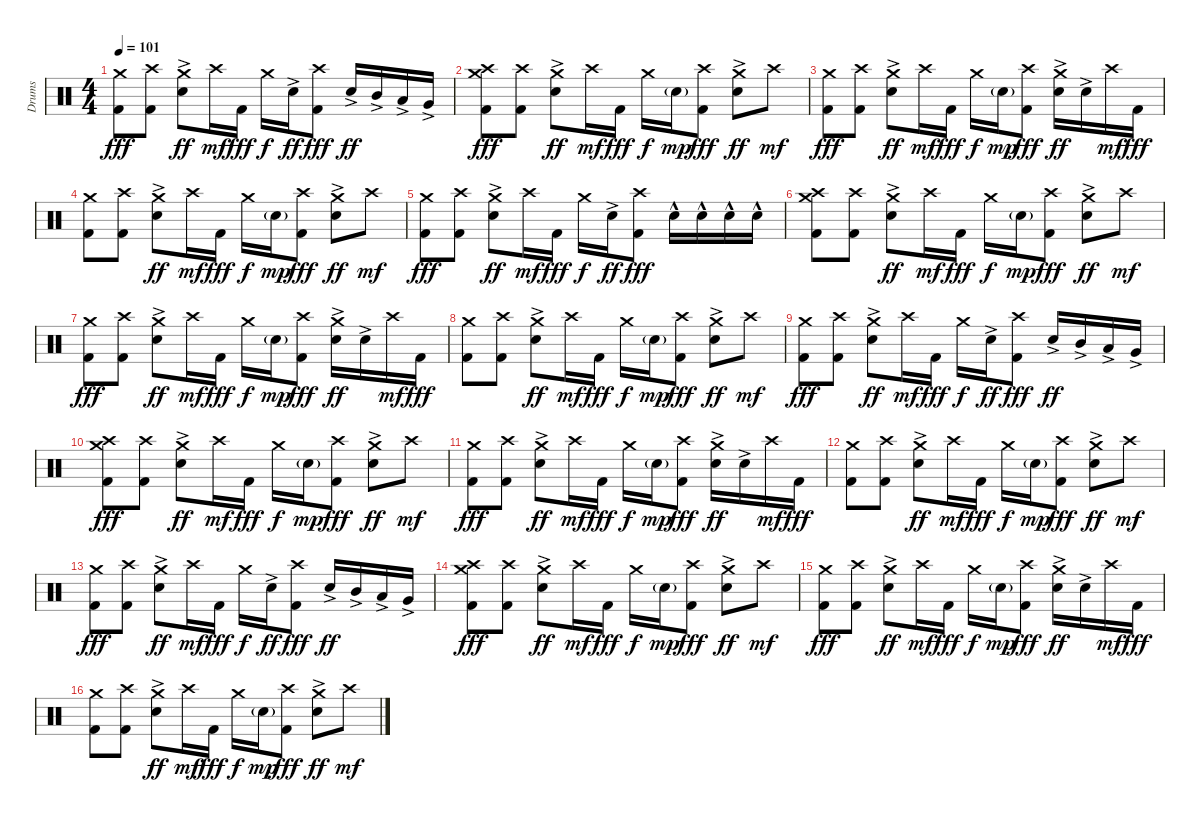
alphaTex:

\track ("Drums" "Drums") {instrument percussion}
\staff {score}
\articulation defaults
\ts (4 4)
\tempo 101
\clef neutral
\ks c
("Crash medium (hit)" "Kick (hit) 2").8{dy fff} ("Crash high (hit)" "Kick (hit) 2").8 ("Crash medium (hit)" "Electric Snare (hit)"{ac}).8{dy ff} "Crash high (hit)".16{dy mf} "Kick (hit) 2".16{dy fff} "Crash medium (hit)".16{dy f} "Electric Snare (hit)"{ac}.16{dy ff} ("Crash high (hit)" "Kick (hit) 2").8{dy fff} "Electric Snare (hit)"{ac}.16{dy ff} "Mid Tom (hit)"{ac}.16 "Low Tom (hit)"{ac}.16 "Very Low Tom (hit)"{ac}.16 |
("Crash medium (hit)" "Crash high (hit)" "Kick (hit) 2").8{dy fff} ("Crash high (hit)" "Kick (hit) 2").8 ("Crash medium (hit)" "Electric Snare (hit)"{ac}).8{dy ff} "Crash high (hit)".16{dy mf} "Kick (hit) 2".16{dy fff} "Crash medium (hit)".16{dy f} "Snare (hit) 2"{g}.16{dy mp} ("Crash high (hit)" "Kick (hit) 2").8{dy fff} ("Crash medium (hit)" "Electric Snare (hit)"{ac}).8{dy ff} "Crash high (hit)".8{dy mf} |
("Crash medium (hit)" "Kick (hit) 2").8{dy fff} ("Crash high (hit)" "Kick (hit) 2").8 ("Crash medium (hit)" "Electric Snare (hit)"{ac}).8{dy ff} "Crash high (hit)".16{dy mf} "Kick (hit) 2".16{dy fff} "Crash medium (hit)".16{dy f} "Snare (hit) 2"{g}.16{dy mp} ("Crash high (hit)" "Kick (hit) 2").8{dy fff} ("Crash medium (hit)" "Electric Snare (hit)"{ac}).16{dy ff} "Electric Snare (hit)"{ac}.16 "Crash high (hit)".16{dy mf} "Kick (hit) 2".16{dy fff} |
("Crash medium (hit)" "Kick (hit) 2").8 ("Crash high (hit)" "Kick (hit) 2").8 ("Crash medium (hit)" "Electric Snare (hit)"{ac}).8{dy ff} "Crash high (hit)".16{dy mf} "Kick (hit) 2".16{dy fff} "Crash medium (hit)".16{dy f} "Snare (hit) 2"{g}.16{dy mp} ("Crash high (hit)" "Kick (hit) 2").8{dy fff} ("Crash medium (hit)" "Electric Snare (hit)"{ac}).8{dy ff} "Crash high (hit)".8{dy mf} |
("Crash medium (hit)" "Kick (hit) 2").8{dy fff} ("Crash high (hit)" "Kick (hit) 2").8 ("Crash medium (hit)" "Electric Snare (hit)"{ac}).8{dy ff} "Crash high (hit)".16{dy mf} "Kick (hit) 2".16{dy fff} "Crash medium (hit)".16{dy f} "Electric Snare (hit)"{ac}.16{dy ff} ("Crash high (hit)" "Kick (hit) 2").8{dy fff} "Electric Snare (hit)"{hac}.16 "Electric Snare (hit)"{hac}.16 "Electric Snare (hit)"{hac}.16 "Electric Snare (hit)"{hac}.16 |
("Crash medium (hit)" "Crash high (hit)" "Kick (hit) 2").8 ("Crash high (hit)" "Kick (hit) 2").8 ("Crash medium (hit)" "Electric Snare (hit)"{ac}).8{dy ff} "Crash high (hit)".16{dy mf} "Kick (hit) 2".16{dy fff} "Crash medium (hit)".16{dy f} "Snare (hit) 2"{g}.16{dy mp} ("Crash high (hit)" "Kick (hit) 2").8{dy fff} ("Crash medium (hit)" "Electric Snare (hit)"{ac}).8{dy ff} "Crash high (hit)".8{dy mf} |
("Crash medium (hit)" "Kick (hit) 2").8{dy fff} ("Crash high (hit)" "Kick (hit) 2").8 ("Crash medium (hit)" "Electric Snare (hit)"{ac}).8{dy ff} "Crash high (hit)".16{dy mf} "Kick (hit) 2".16{dy fff} "Crash medium (hit)".16{dy f} "Snare (hit) 2"{g}.16{dy mp} ("Crash high (hit)" "Kick (hit) 2").8{dy fff} ("Crash medium (hit)" "Electric Snare (hit)"{ac}).16{dy ff} "Electric Snare (hit)"{ac}.16 "Crash high (hit)".16{dy mf} "Kick (hit) 2".16{dy fff} |
("Crash medium (hit)" "Kick (hit) 2").8 ("Crash high (hit)" "Kick (hit) 2").8 ("Crash medium (hit)" "Electric Snare (hit)"{ac}).8{dy ff} "Crash high (hit)".16{dy mf} "Kick (hit) 2".16{dy fff} "Crash medium (hit)".16{dy f} "Snare (hit) 2"{g}.16{dy mp} ("Crash high (hit)" "Kick (hit) 2").8{dy fff} ("Crash medium (hit)" "Electric Snare (hit)"{ac}).8{dy ff} "Crash high (hit)".8{dy mf} |
("Crash medium (hit)" "Kick (hit) 2").8{dy fff} ("Crash high (hit)" "Kick (hit) 2").8 ("Crash medium (hit)" "Electric Snare (hit)"{ac}).8{dy ff} "Crash high (hit)".16{dy mf} "Kick (hit) 2".16{dy fff} "Crash medium (hit)".16{dy f} "Electric Snare (hit)"{ac}.16{dy ff} ("Crash high (hit)" "Kick (hit) 2").8{dy fff} "Electric Snare (hit)"{ac}.16{dy ff} "Mid Tom (hit)"{ac}.16 "Low Tom (hit)"{ac}.16 "Very Low Tom (hit)"{ac}.16 |
("Crash medium (hit)" "Crash high (hit)" "Kick (hit) 2").8{dy fff} ("Crash high (hit)" "Kick (hit) 2").8 ("Crash medium (hit)" "Electric Snare (hit)"{ac}).8{dy ff} "Crash high (hit)".16{dy mf} "Kick (hit) 2".16{dy fff} "Crash medium (hit)".16{dy f} "Snare (hit) 2"{g}.16{dy mp} ("Crash high (hit)" "Kick (hit) 2").8{dy fff} ("Crash medium (hit)" "Electric Snare (hit)"{ac}).8{dy ff} "Crash high (hit)".8{dy mf} |
("Crash medium (hit)" "Kick (hit) 2").8{dy fff} ("Crash high (hit)" "Kick (hit) 2").8 ("Crash medium (hit)" "Electric Snare (hit)"{ac}).8{dy ff} "Crash high (hit)".16{dy mf} "Kick (hit) 2".16{dy fff} "Crash medium (hit)".16{dy f} "Snare (hit) 2"{g}.16{dy mp} ("Crash high (hit)" "Kick (hit) 2").8{dy fff} ("Crash medium (hit)" "Electric Snare (hit)"{ac}).16{dy ff} "Electric Snare (hit)"{ac}.16 "Crash high (hit)".16{dy mf} "Kick (hit) 2".16{dy fff} |
("Crash medium (hit)" "Kick (hit) 2").8 ("Crash high (hit)" "Kick (hit) 2").8 ("Crash medium (hit)" "Electric Snare (hit)"{ac}).8{dy ff} "Crash high (hit)".16{dy mf} "Kick (hit) 2".16{dy fff} "Crash medium (hit)".16{dy f} "Snare (hit) 2"{g}.16{dy mp} ("Crash high (hit)" "Kick (hit) 2").8{dy fff} ("Crash medium (hit)" "Electric Snare (hit)"{ac}).8{dy ff} "Crash high (hit)".8{dy mf} |
("Crash medium (hit)" "Kick (hit) 2").8{dy fff} ("Crash high (hit)" "Kick (hit) 2").8 ("Crash medium (hit)" "Electric Snare (hit)"{ac}).8{dy ff} "Crash high (hit)".16{dy mf} "Kick (hit) 2".16{dy fff} "Crash medium (hit)".16{dy f} "Electric Snare (hit)"{ac}.16{dy ff} ("Crash high (hit)" "Kick (hit) 2").8{dy fff} "Electric Snare (hit)"{ac}.16{dy ff} "Mid Tom (hit)"{ac}.16 "Low Tom (hit)"{ac}.16 "Very Low Tom (hit)"{ac}.16 |
("Crash medium (hit)" "Crash high (hit)" "Kick (hit) 2").8{dy fff} ("Crash high (hit)" "Kick (hit) 2").8 ("Crash medium (hit)" "Electric Snare (hit)"{ac}).8{dy ff} "Crash high (hit)".16{dy mf} "Kick (hit) 2".16{dy fff} "Crash medium (hit)".16{dy f} "Snare (hit) 2"{g}.16{dy mp} ("Crash high (hit)" "Kick (hit) 2").8{dy fff} ("Crash medium (hit)" "Electric Snare (hit)"{ac}).8{dy ff} "Crash high (hit)".8{dy mf} |
("Crash medium (hit)" "Kick (hit) 2").8{dy fff} ("Crash high (hit)" "Kick (hit) 2").8 ("Crash medium (hit)" "Electric Snare (hit)"{ac}).8{dy ff} "Crash high (hit)".16{dy mf} "Kick (hit) 2".16{dy fff} "Crash medium (hit)".16{dy f} "Snare (hit) 2"{g}.16{dy mp} ("Crash high (hit)" "Kick (hit) 2").8{dy fff} ("Crash medium (hit)" "Electric Snare (hit)"{ac}).16{dy ff} "Electric Snare (hit)"{ac}.16 "Crash high (hit)".16{dy mf} "Kick (hit) 2".16{dy fff} |
("Crash medium (hit)" "Kick (hit) 2").8 ("Crash high (hit)" "Kick (hit) 2").8 ("Crash medium (hit)" "Electric Snare (hit)"{ac}).8{dy ff} "Crash high (hit)".16{dy mf} "Kick (hit) 2".16{dy fff} "Crash medium (hit)".16{dy f} "Snare (hit) 2"{g}.16{dy mp} ("Crash high (hit)" "Kick (hit) 2").8{dy fff} ("Crash medium (hit)" "Electric Snare (hit)"{ac}).8{dy ff} "Crash high (hit)".8{dy mf}
